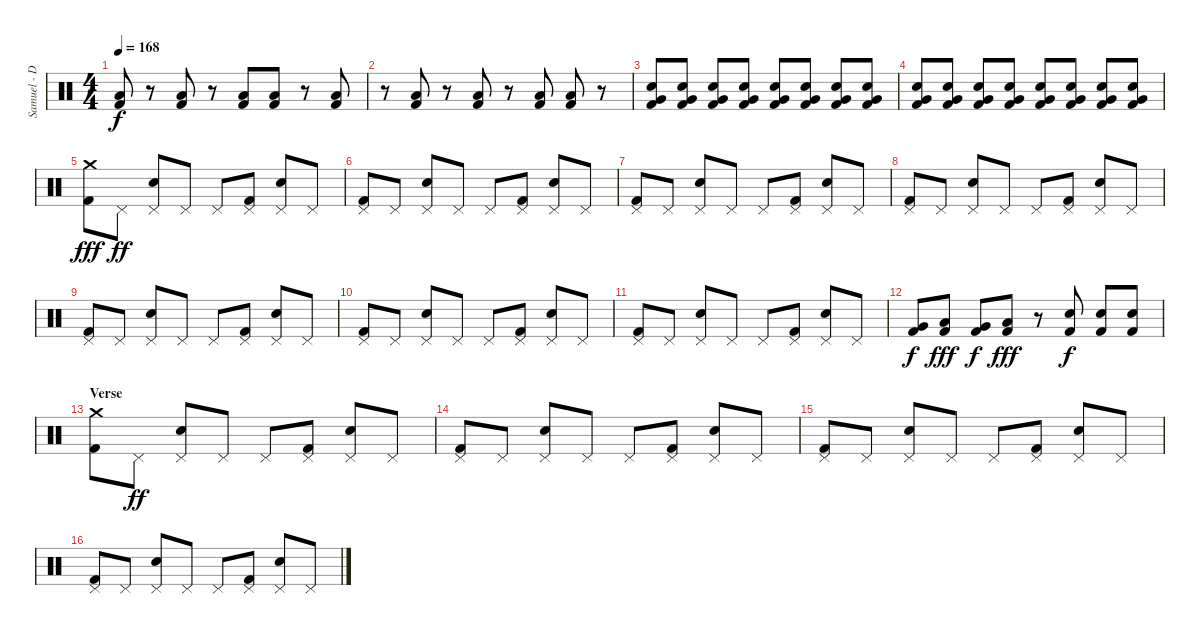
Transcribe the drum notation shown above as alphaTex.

\track ("Samuel - Drums" "Samuel - D") {instrument percussion}
\staff {score}
\articulation defaults
\ts (4 4)
\tempo 168
\clef neutral
\ks c
("Low Tom (hit)" "Kick (hit) 2").8{dy f} r.8 ("Low Tom (hit)" "Kick (hit) 2").8 r.8 ("Low Tom (hit)" "Kick (hit) 2").8 ("Low Tom (hit)" "Kick (hit) 2").8 r.8 ("Low Tom (hit)" "Kick (hit) 2").8 |
r.8 ("Low Tom (hit)" "Kick (hit) 2").8 r.8 ("Low Tom (hit)" "Kick (hit) 2").8 r.8 ("Low Tom (hit)" "Kick (hit) 2").8 ("Low Tom (hit)" "Kick (hit) 2").8 r.8 |
("Electric Snare (hit)" "Very Low Tom (hit)" "Kick (hit) 2").8{volume 7} ("Electric Snare (hit)" "Very Low Tom (hit)" "Kick (hit) 2").8{volume 15} ("Electric Snare (hit)" "Very Low Tom (hit)" "Kick (hit) 2").8 ("Electric Snare (hit)" "Very Low Tom (hit)" "Kick (hit) 2").8 ("Electric Snare (hit)" "Very Low Tom (hit)" "Kick (hit) 2").8 ("Electric Snare (hit)" "Very Low Tom (hit)" "Kick (hit) 2").8 ("Electric Snare (hit)" "Very Low Tom (hit)" "Kick (hit) 2").8 ("Electric Snare (hit)" "Very Low Tom (hit)" "Kick (hit) 2").8 |
("Electric Snare (hit)" "Very Low Tom (hit)" "Kick (hit) 2").8 ("Electric Snare (hit)" "Very Low Tom (hit)" "Kick (hit) 2").8 ("Electric Snare (hit)" "Very Low Tom (hit)" "Kick (hit) 2").8 ("Electric Snare (hit)" "Very Low Tom (hit)" "Kick (hit) 2").8 ("Electric Snare (hit)" "Very Low Tom (hit)" "Kick (hit) 2").8 ("Electric Snare (hit)" "Very Low Tom (hit)" "Kick (hit) 2").8 ("Electric Snare (hit)" "Very Low Tom (hit)" "Kick (hit) 2").8 ("Electric Snare (hit)" "Very Low Tom (hit)" "Kick (hit) 2").8 |
("Crash medium (hit)" "Kick (hit) 2").8{dy fff} "Pedal Hi-Hat (hit)".8{dy ff} ("Pedal Hi-Hat (hit)" "Electric Snare (hit)").8 "Pedal Hi-Hat (hit)".8 "Pedal Hi-Hat (hit)".8 ("Pedal Hi-Hat (hit)" "Kick (hit) 2").8 ("Pedal Hi-Hat (hit)" "Electric Snare (hit)").8 "Pedal Hi-Hat (hit)".8 |
("Pedal Hi-Hat (hit)" "Kick (hit) 2").8 "Pedal Hi-Hat (hit)".8 ("Pedal Hi-Hat (hit)" "Electric Snare (hit)").8 "Pedal Hi-Hat (hit)".8 "Pedal Hi-Hat (hit)".8 ("Pedal Hi-Hat (hit)" "Kick (hit) 2").8 ("Pedal Hi-Hat (hit)" "Electric Snare (hit)").8 "Pedal Hi-Hat (hit)".8 |
("Pedal Hi-Hat (hit)" "Kick (hit) 2").8 "Pedal Hi-Hat (hit)".8 ("Pedal Hi-Hat (hit)" "Electric Snare (hit)").8 "Pedal Hi-Hat (hit)".8 "Pedal Hi-Hat (hit)".8 ("Pedal Hi-Hat (hit)" "Kick (hit) 2").8 ("Pedal Hi-Hat (hit)" "Electric Snare (hit)").8 "Pedal Hi-Hat (hit)".8 |
("Pedal Hi-Hat (hit)" "Kick (hit) 2").8 "Pedal Hi-Hat (hit)".8 ("Pedal Hi-Hat (hit)" "Electric Snare (hit)").8 "Pedal Hi-Hat (hit)".8 "Pedal Hi-Hat (hit)".8 ("Pedal Hi-Hat (hit)" "Kick (hit) 2").8 ("Pedal Hi-Hat (hit)" "Electric Snare (hit)").8 "Pedal Hi-Hat (hit)".8 |
("Pedal Hi-Hat (hit)" "Kick (hit) 2").8 "Pedal Hi-Hat (hit)".8 ("Pedal Hi-Hat (hit)" "Electric Snare (hit)").8 "Pedal Hi-Hat (hit)".8 "Pedal Hi-Hat (hit)".8 ("Pedal Hi-Hat (hit)" "Kick (hit) 2").8 ("Pedal Hi-Hat (hit)" "Electric Snare (hit)").8 "Pedal Hi-Hat (hit)".8 |
("Pedal Hi-Hat (hit)" "Kick (hit) 2").8 "Pedal Hi-Hat (hit)".8 ("Pedal Hi-Hat (hit)" "Electric Snare (hit)").8 "Pedal Hi-Hat (hit)".8 "Pedal Hi-Hat (hit)".8 ("Pedal Hi-Hat (hit)" "Kick (hit) 2").8 ("Pedal Hi-Hat (hit)" "Electric Snare (hit)").8 "Pedal Hi-Hat (hit)".8 |
("Pedal Hi-Hat (hit)" "Kick (hit) 2").8 "Pedal Hi-Hat (hit)".8 ("Pedal Hi-Hat (hit)" "Electric Snare (hit)").8 "Pedal Hi-Hat (hit)".8 "Pedal Hi-Hat (hit)".8 ("Pedal Hi-Hat (hit)" "Kick (hit) 2").8 ("Pedal Hi-Hat (hit)" "Electric Snare (hit)").8 "Pedal Hi-Hat (hit)".8 |
("Very Low Tom (hit)" "Kick (hit) 2").8{dy f} ("Low Tom (hit)" "Kick (hit) 2").8{dy fff} ("Very Low Tom (hit)" "Kick (hit) 2").8{dy f} ("Low Tom (hit)" "Kick (hit) 2").8{dy fff} r.8 ("Electric Snare (hit)" "Kick (hit) 2").8{dy f} ("Electric Snare (hit)" "Kick (hit) 2").8 ("Electric Snare (hit)" "Kick (hit) 2").8 |
\section ("" "Verse")
("Crash medium (hit)" "Kick (hit) 2").8 "Pedal Hi-Hat (hit)".8{dy ff} ("Pedal Hi-Hat (hit)" "Electric Snare (hit)").8 "Pedal Hi-Hat (hit)".8 "Pedal Hi-Hat (hit)".8 ("Pedal Hi-Hat (hit)" "Kick (hit) 2").8 ("Pedal Hi-Hat (hit)" "Electric Snare (hit)").8 "Pedal Hi-Hat (hit)".8 |
("Pedal Hi-Hat (hit)" "Kick (hit) 2").8 "Pedal Hi-Hat (hit)".8 ("Pedal Hi-Hat (hit)" "Electric Snare (hit)").8 "Pedal Hi-Hat (hit)".8 "Pedal Hi-Hat (hit)".8 ("Pedal Hi-Hat (hit)" "Kick (hit) 2").8 ("Pedal Hi-Hat (hit)" "Electric Snare (hit)").8 "Pedal Hi-Hat (hit)".8 |
("Pedal Hi-Hat (hit)" "Kick (hit) 2").8 "Pedal Hi-Hat (hit)".8 ("Pedal Hi-Hat (hit)" "Electric Snare (hit)").8 "Pedal Hi-Hat (hit)".8 "Pedal Hi-Hat (hit)".8 ("Pedal Hi-Hat (hit)" "Kick (hit) 2").8 ("Pedal Hi-Hat (hit)" "Electric Snare (hit)").8 "Pedal Hi-Hat (hit)".8 |
("Pedal Hi-Hat (hit)" "Kick (hit) 2").8 "Pedal Hi-Hat (hit)".8 ("Pedal Hi-Hat (hit)" "Electric Snare (hit)").8 "Pedal Hi-Hat (hit)".8 "Pedal Hi-Hat (hit)".8 ("Pedal Hi-Hat (hit)" "Kick (hit) 2").8 ("Pedal Hi-Hat (hit)" "Electric Snare (hit)").8 "Pedal Hi-Hat (hit)".8
